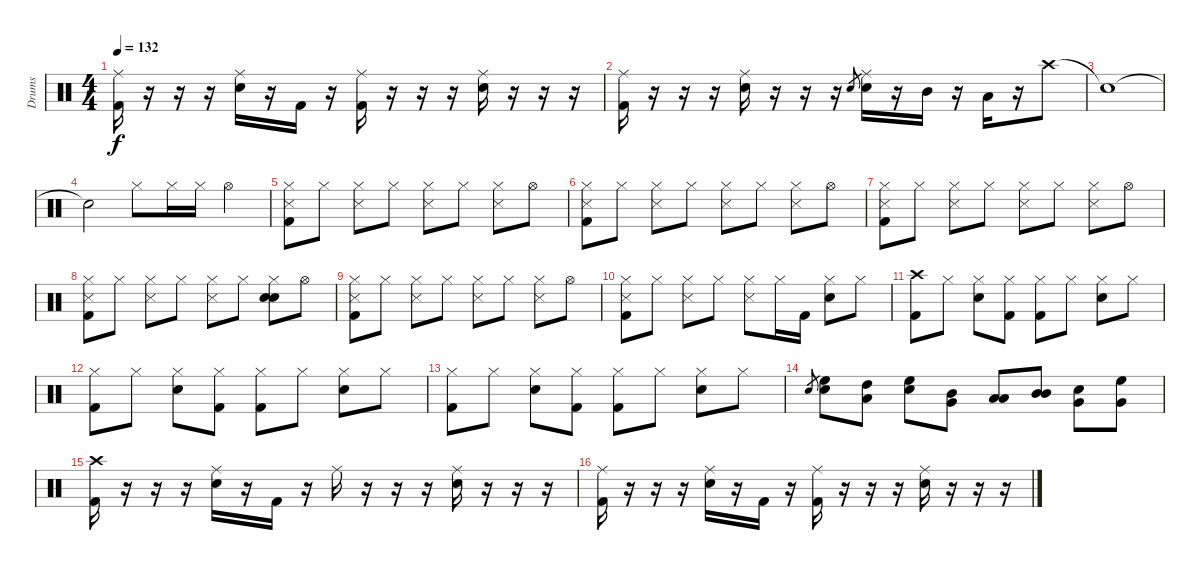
\track ("Drums" "Drums") {instrument percussion}
\staff {score}
\articulation defaults
\ts (4 4)
\tempo 132
\clef neutral
\ks c
("Ride (middle)" "Kick (hit) 2").16{dy f} r.16 r.16 r.16 ("Ride (middle)" "Snare (hit) 2").16 r.16 "Kick (hit) 2".16 r.16 ("Ride (middle)" "Kick (hit) 2").16 r.16 r.16 r.16 ("Ride (middle)" "Snare (hit) 2").16 r.16 r.16 r.16 |
("Ride (middle)" "Kick (hit) 2").16 r.16 r.16 r.16 ("Ride (middle)" "Snare (hit) 2").16 r.16 r.16 r.16 "Snare (hit) 2".8{gr} ("Ride (middle)" "Snare (hit) 2").16 r.16 "Mid Tom (hit)".16 r.16 "Low Tom (hit)".16 r.16 "Crash high (hit)".8 |
"Snare (hit)"{t}.1 |
"Snare (hit)"{t}.2 "Hi-Hat (closed)".8 "Hi-Hat (closed)".16 "Hi-Hat (closed)".16 "Hi-Hat (open)".4 |
("Hi-Hat (closed)" "Snare (side stick) 3" "Kick (hit) 2").8 "Hi-Hat (closed)".8 ("Hi-Hat (closed)" "Snare (side stick) 3").8 "Hi-Hat (closed)".8 ("Hi-Hat (closed)" "Snare (side stick) 3").8 "Hi-Hat (closed)".8 ("Hi-Hat (closed)" "Snare (side stick) 3").8 "Hi-Hat (open)".8 |
("Hi-Hat (closed)" "Snare (side stick) 3" "Kick (hit) 2").8 "Hi-Hat (closed)".8 ("Hi-Hat (closed)" "Snare (side stick) 3").8 "Hi-Hat (closed)".8 ("Hi-Hat (closed)" "Snare (side stick) 3").8 "Hi-Hat (closed)".8 ("Hi-Hat (closed)" "Snare (side stick) 3").8 "Hi-Hat (open)".8 |
("Hi-Hat (closed)" "Snare (side stick) 3" "Kick (hit) 2").8 "Hi-Hat (closed)".8 ("Hi-Hat (closed)" "Snare (side stick) 3").8 "Hi-Hat (closed)".8 ("Hi-Hat (closed)" "Snare (side stick) 3").8 "Hi-Hat (closed)".8 ("Hi-Hat (closed)" "Snare (side stick) 3").8 "Hi-Hat (open)".8 |
("Hi-Hat (closed)" "Snare (side stick) 3" "Kick (hit) 2").8 "Hi-Hat (closed)".8 ("Hi-Hat (closed)" "Snare (side stick) 3").8 "Hi-Hat (closed)".8 ("Hi-Hat (closed)" "Snare (side stick) 3").8 "Hi-Hat (closed)".8 ("Hi-Hat (closed)" "Snare (hit) 2" "Snare (hit) 2").8 "Hi-Hat (open)".8 |
("Hi-Hat (closed)" "Snare (side stick) 3" "Kick (hit) 2").8 "Hi-Hat (closed)".8 ("Hi-Hat (closed)" "Snare (side stick) 3").8 "Hi-Hat (closed)".8 ("Hi-Hat (closed)" "Snare (side stick) 3").8 "Hi-Hat (closed)".8 ("Hi-Hat (closed)" "Snare (side stick) 3").8 "Hi-Hat (open)".8 |
("Hi-Hat (closed)" "Snare (side stick) 3" "Kick (hit) 2").8 "Hi-Hat (closed)".8 ("Hi-Hat (closed)" "Snare (side stick) 3").8 "Hi-Hat (closed)".8 ("Hi-Hat (closed)" "Snare (side stick) 3").8 "Hi-Hat (closed)".16 "Kick (hit) 2".16 ("Hi-Hat (closed)" "Snare (hit) 2").8 "Hi-Hat (closed)".8 |
("Crash high (hit)" "Kick (hit) 2").8 "Hi-Hat (closed)".8 ("Hi-Hat (closed)" "Snare (hit) 2").8 ("Hi-Hat (closed)" "Kick (hit) 2").8 ("Hi-Hat (closed)" "Kick (hit) 2").8 "Hi-Hat (closed)".8 ("Hi-Hat (closed)" "Snare (hit) 2").8 "Hi-Hat (closed)".8 |
("Hi-Hat (closed)" "Kick (hit) 2").8 "Hi-Hat (closed)".8 ("Hi-Hat (closed)" "Snare (hit) 2").8 ("Hi-Hat (closed)" "Kick (hit) 2").8 ("Hi-Hat (closed)" "Kick (hit) 2").8 "Hi-Hat (closed)".8 ("Hi-Hat (closed)" "Snare (hit) 2").8 "Hi-Hat (closed)".8 |
("Hi-Hat (closed)" "Kick (hit) 2").8 "Hi-Hat (closed)".8 ("Hi-Hat (closed)" "Snare (hit) 2").8 ("Hi-Hat (closed)" "Kick (hit) 2").8 ("Hi-Hat (closed)" "Kick (hit) 2").8 "Hi-Hat (closed)".8 ("Hi-Hat (closed)" "Snare (hit) 2").8 "Hi-Hat (closed)".8 |
"Snare (hit) 2".8{gr} ("Snare (hit) 2" "High Floor Tom (hit)").8 ("Low Floor Tom (hit)" "High Tom (hit)").8 ("Snare (hit) 2" "High Floor Tom (hit)").8 ("Very Low Tom (hit)" "Mid Tom (hit)").8 ("Low Tom (hit)" "Low Tom (hit)").8 ("Mid Tom (hit)" "Mid Tom (hit)").8 ("Snare (hit) 2" "Very Low Tom (hit)").8 ("High Floor Tom (hit)" "Very Low Tom (hit)").8 |
("Crash high (hit)" "Kick (hit) 2").16 r.16 r.16 r.16 ("Ride (middle)" "Snare (hit) 2").16 r.16 "Kick (hit) 2".16 r.16 "Ride (middle)".16 r.16 r.16 r.16 ("Ride (middle)" "Snare (hit) 2").16 r.16 r.16 r.16 |
("Ride (middle)" "Kick (hit) 2").16 r.16 r.16 r.16 ("Ride (middle)" "Snare (hit) 2").16 r.16 "Kick (hit) 2".16 r.16 ("Ride (middle)" "Kick (hit) 2").16 r.16 r.16 r.16 ("Ride (middle)" "Snare (hit) 2").16 r.16 r.16 r.16
